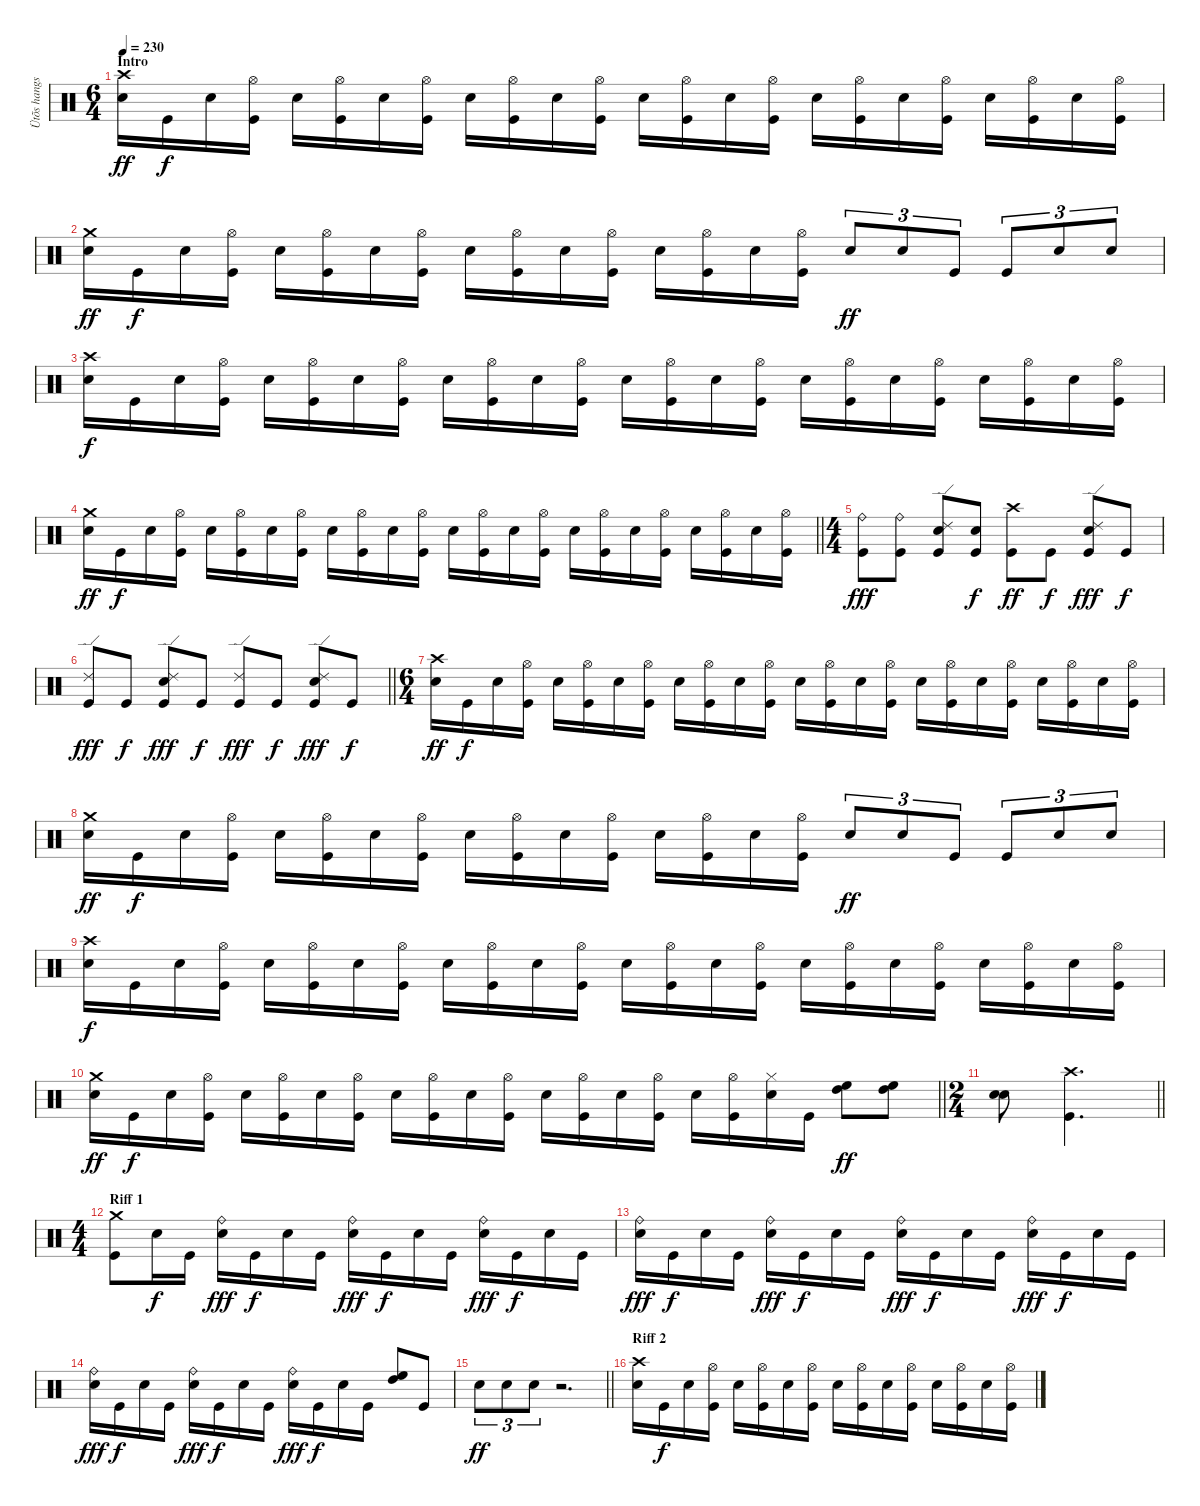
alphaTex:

\track ("Ütõs hangszer" "Ütõs hangs") {instrument percussion}
\staff {score}
\articulation defaults
\ts (6 4)
\section ("" "Intro")
\tempo 230
\clef neutral
\ks c
("Crash high (hit)" "Electric Snare (hit)").16{dy ff} "Kick (hit)".16{dy f} "Electric Snare (hit)".16 ("Hi-Hat (open)" "Kick (hit)").16 "Electric Snare (hit)".16 ("Hi-Hat (open)" "Kick (hit)").16 "Electric Snare (hit)".16 ("Hi-Hat (open)" "Kick (hit)").16 "Electric Snare (hit)".16 ("Hi-Hat (open)" "Kick (hit)").16 "Electric Snare (hit)".16 ("Hi-Hat (open)" "Kick (hit)").16 "Electric Snare (hit)".16 ("Hi-Hat (open)" "Kick (hit)").16 "Electric Snare (hit)".16 ("Hi-Hat (open)" "Kick (hit)").16 "Electric Snare (hit)".16 ("Hi-Hat (open)" "Kick (hit)").16 "Electric Snare (hit)".16 ("Hi-Hat (open)" "Kick (hit)").16 "Electric Snare (hit)".16 ("Hi-Hat (open)" "Kick (hit)").16 "Electric Snare (hit)".16 ("Hi-Hat (open)" "Kick (hit)").16 |
("Crash medium (hit)" "Electric Snare (hit)").16{dy ff} "Kick (hit)".16{dy f} "Electric Snare (hit)".16 ("Hi-Hat (open)" "Kick (hit)").16 "Electric Snare (hit)".16 ("Hi-Hat (open)" "Kick (hit)").16 "Electric Snare (hit)".16 ("Hi-Hat (open)" "Kick (hit)").16 "Electric Snare (hit)".16 ("Hi-Hat (open)" "Kick (hit)").16 "Electric Snare (hit)".16 ("Hi-Hat (open)" "Kick (hit)").16 "Electric Snare (hit)".16 ("Hi-Hat (open)" "Kick (hit)").16 "Electric Snare (hit)".16 ("Hi-Hat (open)" "Kick (hit)").16 "Electric Snare (hit)".8{tu (3 2) dy ff} "Electric Snare (hit)".8{tu (3 2)} "Kick (hit)".8{tu (3 2)} "Kick (hit)".8{tu (3 2)} "Electric Snare (hit)".8{tu (3 2)} "Electric Snare (hit)".8{tu (3 2)} |
("Crash high (hit)" "Electric Snare (hit)").16{dy f} "Kick (hit)".16 "Electric Snare (hit)".16 ("Hi-Hat (open)" "Kick (hit)").16 "Electric Snare (hit)".16 ("Hi-Hat (open)" "Kick (hit)").16 "Electric Snare (hit)".16 ("Hi-Hat (open)" "Kick (hit)").16 "Electric Snare (hit)".16 ("Hi-Hat (open)" "Kick (hit)").16 "Electric Snare (hit)".16 ("Hi-Hat (open)" "Kick (hit)").16 "Electric Snare (hit)".16 ("Hi-Hat (open)" "Kick (hit)").16 "Electric Snare (hit)".16 ("Hi-Hat (open)" "Kick (hit)").16 "Electric Snare (hit)".16 ("Hi-Hat (open)" "Kick (hit)").16 "Electric Snare (hit)".16 ("Hi-Hat (open)" "Kick (hit)").16 "Electric Snare (hit)".16 ("Hi-Hat (open)" "Kick (hit)").16 "Electric Snare (hit)".16 ("Hi-Hat (open)" "Kick (hit)").16 |
\barLineRight lightlight
("Crash medium (hit)" "Electric Snare (hit)").16{dy ff} "Kick (hit)".16{dy f} "Electric Snare (hit)".16 ("Hi-Hat (open)" "Kick (hit)").16 "Electric Snare (hit)".16 ("Hi-Hat (open)" "Kick (hit)").16 "Electric Snare (hit)".16 ("Hi-Hat (open)" "Kick (hit)").16 "Electric Snare (hit)".16 ("Hi-Hat (open)" "Kick (hit)").16 "Electric Snare (hit)".16 ("Hi-Hat (open)" "Kick (hit)").16 "Electric Snare (hit)".16 ("Hi-Hat (open)" "Kick (hit)").16 "Electric Snare (hit)".16 ("Hi-Hat (open)" "Kick (hit)").16 "Electric Snare (hit)".16 ("Hi-Hat (open)" "Kick (hit)").16 "Electric Snare (hit)".16 ("Hi-Hat (open)" "Kick (hit)").16 "Electric Snare (hit)".16 ("Hi-Hat (open)" "Kick (hit)").16 "Electric Snare (hit)".16 ("Hi-Hat (open)" "Kick (hit)").16 |
\ts (4 4)
\section ("" "")
("Ride (bell)" "Kick (hit)").8{dy fff} ("Ride (bell)" "Kick (hit)").8 ("Ride (edge) 2" "Electric Snare (hit)" "Kick (hit)").8 ("Electric Snare (hit)" "Kick (hit)").8{dy f} ("Crash high (hit)" "Kick (hit)").8{dy ff} "Kick (hit)".8{dy f} ("Ride (edge) 2" "Electric Snare (hit)" "Kick (hit)").8{dy fff} "Kick (hit)".8{dy f} |
\barLineRight lightlight
("Ride (edge) 2" "Kick (hit)").8{dy fff} "Kick (hit)".8{dy f} ("Ride (edge) 2" "Electric Snare (hit)" "Kick (hit)").8{dy fff} "Kick (hit)".8{dy f} ("Ride (edge) 2" "Kick (hit)").8{dy fff} "Kick (hit)".8{dy f} ("Ride (edge) 2" "Electric Snare (hit)" "Kick (hit)").8{dy fff} "Kick (hit)".8{dy f} |
\ts (6 4)
\section ("" "")
("Crash high (hit)" "Electric Snare (hit)").16{dy ff} "Kick (hit)".16{dy f} "Electric Snare (hit)".16 ("Hi-Hat (open)" "Kick (hit)").16 "Electric Snare (hit)".16 ("Hi-Hat (open)" "Kick (hit)").16 "Electric Snare (hit)".16 ("Hi-Hat (open)" "Kick (hit)").16 "Electric Snare (hit)".16 ("Hi-Hat (open)" "Kick (hit)").16 "Electric Snare (hit)".16 ("Hi-Hat (open)" "Kick (hit)").16 "Electric Snare (hit)".16 ("Hi-Hat (open)" "Kick (hit)").16 "Electric Snare (hit)".16 ("Hi-Hat (open)" "Kick (hit)").16 "Electric Snare (hit)".16 ("Hi-Hat (open)" "Kick (hit)").16 "Electric Snare (hit)".16 ("Hi-Hat (open)" "Kick (hit)").16 "Electric Snare (hit)".16 ("Hi-Hat (open)" "Kick (hit)").16 "Electric Snare (hit)".16 ("Hi-Hat (open)" "Kick (hit)").16 |
("Crash medium (hit)" "Electric Snare (hit)").16{dy ff} "Kick (hit)".16{dy f} "Electric Snare (hit)".16 ("Hi-Hat (open)" "Kick (hit)").16 "Electric Snare (hit)".16 ("Hi-Hat (open)" "Kick (hit)").16 "Electric Snare (hit)".16 ("Hi-Hat (open)" "Kick (hit)").16 "Electric Snare (hit)".16 ("Hi-Hat (open)" "Kick (hit)").16 "Electric Snare (hit)".16 ("Hi-Hat (open)" "Kick (hit)").16 "Electric Snare (hit)".16 ("Hi-Hat (open)" "Kick (hit)").16 "Electric Snare (hit)".16 ("Hi-Hat (open)" "Kick (hit)").16 "Electric Snare (hit)".8{tu (3 2) dy ff} "Electric Snare (hit)".8{tu (3 2)} "Kick (hit)".8{tu (3 2)} "Kick (hit)".8{tu (3 2)} "Electric Snare (hit)".8{tu (3 2)} "Electric Snare (hit)".8{tu (3 2)} |
("Crash high (hit)" "Electric Snare (hit)").16{dy f} "Kick (hit)".16 "Electric Snare (hit)".16 ("Hi-Hat (open)" "Kick (hit)").16 "Electric Snare (hit)".16 ("Hi-Hat (open)" "Kick (hit)").16 "Electric Snare (hit)".16 ("Hi-Hat (open)" "Kick (hit)").16 "Electric Snare (hit)".16 ("Hi-Hat (open)" "Kick (hit)").16 "Electric Snare (hit)".16 ("Hi-Hat (open)" "Kick (hit)").16 "Electric Snare (hit)".16 ("Hi-Hat (open)" "Kick (hit)").16 "Electric Snare (hit)".16 ("Hi-Hat (open)" "Kick (hit)").16 "Electric Snare (hit)".16 ("Hi-Hat (open)" "Kick (hit)").16 "Electric Snare (hit)".16 ("Hi-Hat (open)" "Kick (hit)").16 "Electric Snare (hit)".16 ("Hi-Hat (open)" "Kick (hit)").16 "Electric Snare (hit)".16 ("Hi-Hat (open)" "Kick (hit)").16 |
\barLineRight lightlight
("Crash medium (hit)" "Electric Snare (hit)").16{dy ff} "Kick (hit)".16{dy f} "Electric Snare (hit)".16 ("Hi-Hat (open)" "Kick (hit)").16 "Electric Snare (hit)".16 ("Hi-Hat (open)" "Kick (hit)").16 "Electric Snare (hit)".16 ("Hi-Hat (open)" "Kick (hit)").16 "Electric Snare (hit)".16 ("Hi-Hat (open)" "Kick (hit)").16 "Electric Snare (hit)".16 ("Hi-Hat (open)" "Kick (hit)").16 "Electric Snare (hit)".16 ("Hi-Hat (open)" "Kick (hit)").16 "Electric Snare (hit)".16 ("Hi-Hat (open)" "Kick (hit)").16 "Electric Snare (hit)".16 ("Hi-Hat (open)" "Kick (hit)").16 ("Hi-Hat (closed)" "Electric Snare (hit)").16 "Kick (hit)".16 ("High Floor Tom (hit)" "High Tom (hit)").8{dy ff} ("High Floor Tom (hit)" "High Tom (hit)").8 |
\ts (2 4)
\section ("" "")
\barLineRight lightlight
("Electric Snare (hit)" "Electric Snare (hit)").8{bu 240} ("Crash high (hit)" "Kick (hit)").4{d} |
\ts (4 4)
\section ("" "Riff 1")
("Crash medium (hit)" "Kick (hit)").8 "Electric Snare (hit)".16{dy f} "Kick (hit)".16 ("Ride (bell)" "Electric Snare (hit)").16{dy fff} "Kick (hit)".16{dy f} "Electric Snare (hit)".16 "Kick (hit)".16 ("Ride (bell)" "Electric Snare (hit)").16{dy fff} "Kick (hit)".16{dy f} "Electric Snare (hit)".16 "Kick (hit)".16 ("Ride (bell)" "Electric Snare (hit)").16{dy fff} "Kick (hit)".16{dy f} "Electric Snare (hit)".16 "Kick (hit)".16 |
("Ride (bell)" "Electric Snare (hit)").16{dy fff} "Kick (hit)".16{dy f} "Electric Snare (hit)".16 "Kick (hit)".16 ("Ride (bell)" "Electric Snare (hit)").16{dy fff} "Kick (hit)".16{dy f} "Electric Snare (hit)".16 "Kick (hit)".16 ("Ride (bell)" "Electric Snare (hit)").16{dy fff} "Kick (hit)".16{dy f} "Electric Snare (hit)".16 "Kick (hit)".16 ("Ride (bell)" "Electric Snare (hit)").16{dy fff} "Kick (hit)".16{dy f} "Electric Snare (hit)".16 "Kick (hit)".16 |
("Ride (bell)" "Electric Snare (hit)").16{dy fff} "Kick (hit)".16{dy f} "Electric Snare (hit)".16 "Kick (hit)".16 ("Ride (bell)" "Electric Snare (hit)").16{dy fff} "Kick (hit)".16{dy f} "Electric Snare (hit)".16 "Kick (hit)".16 ("Ride (bell)" "Electric Snare (hit)").16{dy fff} "Kick (hit)".16{dy f} "Electric Snare (hit)".16 "Kick (hit)".16 ("High Floor Tom (hit)" "High Tom (hit)").8 "Kick (hit)".8 |
\barLineRight lightlight "Electric Snare (hit)".8{tu (3 2) dy ff} "Electric Snare (hit)".8{tu (3 2)} "Electric Snare (hit)".8{tu (3 2)}
r.2{d} |
\section ("" "Riff 2")
("Crash high (hit)" "Electric Snare (hit)").16 "Kick (hit)".16{dy f} "Electric Snare (hit)".16 ("Hi-Hat (open)" "Kick (hit)").16 "Electric Snare (hit)".16 ("Hi-Hat (open)" "Kick (hit)").16 "Electric Snare (hit)".16 ("Hi-Hat (open)" "Kick (hit)").16 "Electric Snare (hit)".16 ("Hi-Hat (open)" "Kick (hit)").16 "Electric Snare (hit)".16 ("Hi-Hat (open)" "Kick (hit)").16 "Electric Snare (hit)".16 ("Hi-Hat (open)" "Kick (hit)").16 "Electric Snare (hit)".16 ("Hi-Hat (open)" "Kick (hit)").16
